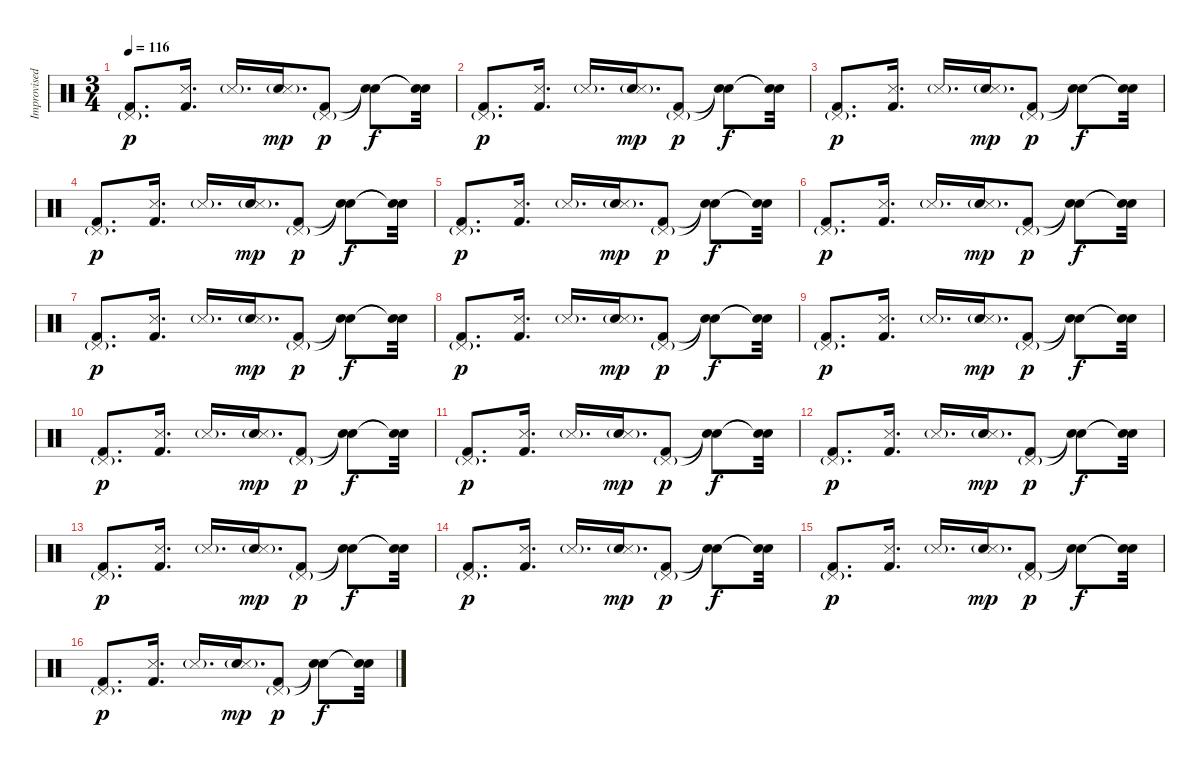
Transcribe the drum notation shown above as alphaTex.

\track ("Improvised Drums" "Improvised") {instrument percussion}
\staff {score}
\articulation defaults
\ts (3 4)
\tempo 116
\clef neutral
\ks c
("Pedal Hi-Hat (hit)"{g} "Kick (hit) 2").8{d dy p} ("Metronome (hit)" "Kick (hit) 2").16{d} "Metronome (hit)"{g}.16{d} ("Electric Snare (hit)"{g} "Metronome (hit)").16{d dy mp} ("Pedal Hi-Hat (hit)"{g} "Kick (hit) 2").8{dy p} ("Snare (hit)"{t} "Snare (hit)"{t}).8{dy f} ("Snare (hit)"{t} "Snare (hit)"{t}).32 |
("Pedal Hi-Hat (hit)"{g} "Kick (hit) 2").8{d dy p} ("Metronome (hit)" "Kick (hit) 2").16{d} "Metronome (hit)"{g}.16{d} ("Electric Snare (hit)"{g} "Metronome (hit)").16{d dy mp} ("Pedal Hi-Hat (hit)"{g} "Kick (hit) 2").8{dy p} ("Snare (hit)"{t} "Snare (hit)"{t}).8{dy f} ("Snare (hit)"{t} "Snare (hit)"{t}).32 |
("Pedal Hi-Hat (hit)"{g} "Kick (hit) 2").8{d dy p} ("Metronome (hit)" "Kick (hit) 2").16{d} "Metronome (hit)"{g}.16{d} ("Electric Snare (hit)"{g} "Metronome (hit)").16{d dy mp} ("Pedal Hi-Hat (hit)"{g} "Kick (hit) 2").8{dy p} ("Snare (hit)"{t} "Snare (hit)"{t}).8{dy f} ("Snare (hit)"{t} "Snare (hit)"{t}).32 |
("Pedal Hi-Hat (hit)"{g} "Kick (hit) 2").8{d dy p} ("Metronome (hit)" "Kick (hit) 2").16{d} "Metronome (hit)"{g}.16{d} ("Electric Snare (hit)"{g} "Metronome (hit)").16{d dy mp} ("Pedal Hi-Hat (hit)"{g} "Kick (hit) 2").8{dy p} ("Snare (hit)"{t} "Snare (hit)"{t}).8{dy f} ("Snare (hit)"{t} "Snare (hit)"{t}).32 |
("Pedal Hi-Hat (hit)"{g} "Kick (hit) 2").8{d dy p} ("Metronome (hit)" "Kick (hit) 2").16{d} "Metronome (hit)"{g}.16{d} ("Electric Snare (hit)"{g} "Metronome (hit)").16{d dy mp} ("Pedal Hi-Hat (hit)"{g} "Kick (hit) 2").8{dy p} ("Snare (hit)"{t} "Snare (hit)"{t}).8{dy f} ("Snare (hit)"{t} "Snare (hit)"{t}).32 |
("Pedal Hi-Hat (hit)"{g} "Kick (hit) 2").8{d dy p} ("Metronome (hit)" "Kick (hit) 2").16{d} "Metronome (hit)"{g}.16{d} ("Electric Snare (hit)"{g} "Metronome (hit)").16{d dy mp} ("Pedal Hi-Hat (hit)"{g} "Kick (hit) 2").8{dy p} ("Snare (hit)"{t} "Snare (hit)"{t}).8{dy f} ("Snare (hit)"{t} "Snare (hit)"{t}).32 |
("Pedal Hi-Hat (hit)"{g} "Kick (hit) 2").8{d dy p} ("Metronome (hit)" "Kick (hit) 2").16{d} "Metronome (hit)"{g}.16{d} ("Electric Snare (hit)"{g} "Metronome (hit)").16{d dy mp} ("Pedal Hi-Hat (hit)"{g} "Kick (hit) 2").8{dy p} ("Snare (hit)"{t} "Snare (hit)"{t}).8{dy f} ("Snare (hit)"{t} "Snare (hit)"{t}).32 |
("Pedal Hi-Hat (hit)"{g} "Kick (hit) 2").8{d dy p} ("Metronome (hit)" "Kick (hit) 2").16{d} "Metronome (hit)"{g}.16{d} ("Electric Snare (hit)"{g} "Metronome (hit)").16{d dy mp} ("Pedal Hi-Hat (hit)"{g} "Kick (hit) 2").8{dy p} ("Snare (hit)"{t} "Snare (hit)"{t}).8{dy f} ("Snare (hit)"{t} "Snare (hit)"{t}).32 |
("Pedal Hi-Hat (hit)"{g} "Kick (hit) 2").8{d dy p} ("Metronome (hit)" "Kick (hit) 2").16{d} "Metronome (hit)"{g}.16{d} ("Electric Snare (hit)"{g} "Metronome (hit)").16{d dy mp} ("Pedal Hi-Hat (hit)"{g} "Kick (hit) 2").8{dy p} ("Snare (hit)"{t} "Snare (hit)"{t}).8{dy f} ("Snare (hit)"{t} "Snare (hit)"{t}).32 |
("Pedal Hi-Hat (hit)"{g} "Kick (hit) 2").8{d dy p} ("Metronome (hit)" "Kick (hit) 2").16{d} "Metronome (hit)"{g}.16{d} ("Electric Snare (hit)"{g} "Metronome (hit)").16{d dy mp} ("Pedal Hi-Hat (hit)"{g} "Kick (hit) 2").8{dy p} ("Snare (hit)"{t} "Snare (hit)"{t}).8{dy f} ("Snare (hit)"{t} "Snare (hit)"{t}).32 |
("Pedal Hi-Hat (hit)"{g} "Kick (hit) 2").8{d dy p} ("Metronome (hit)" "Kick (hit) 2").16{d} "Metronome (hit)"{g}.16{d} ("Electric Snare (hit)"{g} "Metronome (hit)").16{d dy mp} ("Pedal Hi-Hat (hit)"{g} "Kick (hit) 2").8{dy p} ("Snare (hit)"{t} "Snare (hit)"{t}).8{dy f} ("Snare (hit)"{t} "Snare (hit)"{t}).32 |
("Pedal Hi-Hat (hit)"{g} "Kick (hit) 2").8{d dy p} ("Metronome (hit)" "Kick (hit) 2").16{d} "Metronome (hit)"{g}.16{d} ("Electric Snare (hit)"{g} "Metronome (hit)").16{d dy mp} ("Pedal Hi-Hat (hit)"{g} "Kick (hit) 2").8{dy p} ("Snare (hit)"{t} "Snare (hit)"{t}).8{dy f} ("Snare (hit)"{t} "Snare (hit)"{t}).32 |
("Pedal Hi-Hat (hit)"{g} "Kick (hit) 2").8{d dy p} ("Metronome (hit)" "Kick (hit) 2").16{d} "Metronome (hit)"{g}.16{d} ("Electric Snare (hit)"{g} "Metronome (hit)").16{d dy mp} ("Pedal Hi-Hat (hit)"{g} "Kick (hit) 2").8{dy p} ("Snare (hit)"{t} "Snare (hit)"{t}).8{dy f} ("Snare (hit)"{t} "Snare (hit)"{t}).32 |
("Pedal Hi-Hat (hit)"{g} "Kick (hit) 2").8{d dy p} ("Metronome (hit)" "Kick (hit) 2").16{d} "Metronome (hit)"{g}.16{d} ("Electric Snare (hit)"{g} "Metronome (hit)").16{d dy mp} ("Pedal Hi-Hat (hit)"{g} "Kick (hit) 2").8{dy p} ("Snare (hit)"{t} "Snare (hit)"{t}).8{dy f} ("Snare (hit)"{t} "Snare (hit)"{t}).32 |
("Pedal Hi-Hat (hit)"{g} "Kick (hit) 2").8{d dy p} ("Metronome (hit)" "Kick (hit) 2").16{d} "Metronome (hit)"{g}.16{d} ("Electric Snare (hit)"{g} "Metronome (hit)").16{d dy mp} ("Pedal Hi-Hat (hit)"{g} "Kick (hit) 2").8{dy p} ("Snare (hit)"{t} "Snare (hit)"{t}).8{dy f} ("Snare (hit)"{t} "Snare (hit)"{t}).32 |
("Pedal Hi-Hat (hit)"{g} "Kick (hit) 2").8{d dy p} ("Metronome (hit)" "Kick (hit) 2").16{d} "Metronome (hit)"{g}.16{d} ("Electric Snare (hit)"{g} "Metronome (hit)").16{d dy mp} ("Pedal Hi-Hat (hit)"{g} "Kick (hit) 2").8{dy p} ("Snare (hit)"{t} "Snare (hit)"{t}).8{dy f} ("Snare (hit)"{t} "Snare (hit)"{t}).32
